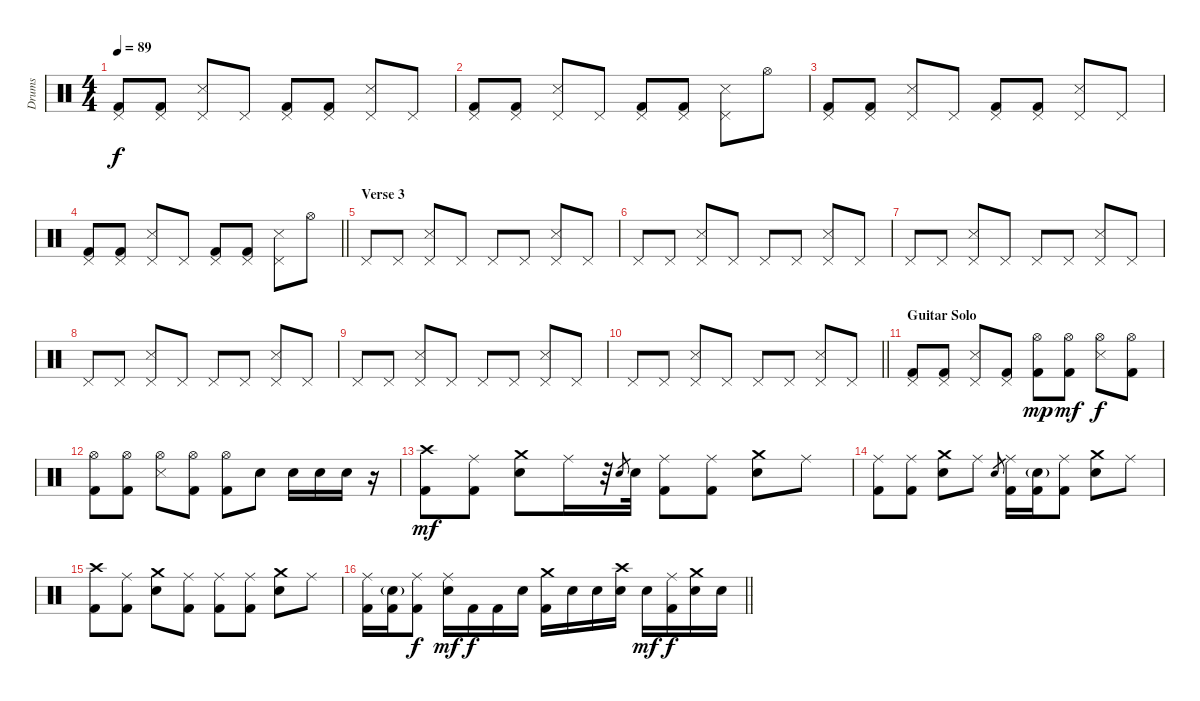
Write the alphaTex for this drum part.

\track ("Drums" "Drums") {instrument percussion}
\staff {score}
\articulation defaults
\ts (4 4)
\tempo 89
\clef neutral
\ks c
("Pedal Hi-Hat (hit)" "Kick (hit) 2").8{dy f} ("Pedal Hi-Hat (hit)" "Kick (hit) 2").8 ("Pedal Hi-Hat (hit)" "Snare (side stick) 3").8 "Pedal Hi-Hat (hit)".8 ("Pedal Hi-Hat (hit)" "Kick (hit) 2").8 ("Pedal Hi-Hat (hit)" "Kick (hit) 2").8 ("Pedal Hi-Hat (hit)" "Snare (side stick) 3").8 "Pedal Hi-Hat (hit)".8 |
("Pedal Hi-Hat (hit)" "Kick (hit) 2").8 ("Pedal Hi-Hat (hit)" "Kick (hit) 2").8 ("Pedal Hi-Hat (hit)" "Snare (side stick) 3").8 "Pedal Hi-Hat (hit)".8 ("Pedal Hi-Hat (hit)" "Kick (hit) 2").8 ("Pedal Hi-Hat (hit)" "Kick (hit) 2").8 ("Pedal Hi-Hat (hit)" "Snare (side stick) 3").8 "Hi-Hat (open)".8 |
("Pedal Hi-Hat (hit)" "Kick (hit) 2").8 ("Pedal Hi-Hat (hit)" "Kick (hit) 2").8 ("Pedal Hi-Hat (hit)" "Snare (side stick) 3").8 "Pedal Hi-Hat (hit)".8 ("Pedal Hi-Hat (hit)" "Kick (hit) 2").8 ("Pedal Hi-Hat (hit)" "Kick (hit) 2").8 ("Pedal Hi-Hat (hit)" "Snare (side stick) 3").8 "Pedal Hi-Hat (hit)".8 |
\barLineRight lightlight
("Pedal Hi-Hat (hit)" "Kick (hit) 2").8 ("Pedal Hi-Hat (hit)" "Kick (hit) 2").8 ("Pedal Hi-Hat (hit)" "Snare (side stick) 3").8 "Pedal Hi-Hat (hit)".8 ("Pedal Hi-Hat (hit)" "Kick (hit) 2").8 ("Pedal Hi-Hat (hit)" "Kick (hit) 2").8 ("Pedal Hi-Hat (hit)" "Snare (side stick) 3").8 "Hi-Hat (open)".8 |
\section ("" "Verse 3")
"Pedal Hi-Hat (hit)".8 "Pedal Hi-Hat (hit)".8 ("Pedal Hi-Hat (hit)" "Snare (side stick) 3").8 "Pedal Hi-Hat (hit)".8 "Pedal Hi-Hat (hit)".8 "Pedal Hi-Hat (hit)".8 ("Pedal Hi-Hat (hit)" "Snare (side stick) 3").8 "Pedal Hi-Hat (hit)".8 |
"Pedal Hi-Hat (hit)".8 "Pedal Hi-Hat (hit)".8 ("Pedal Hi-Hat (hit)" "Snare (side stick) 3").8 "Pedal Hi-Hat (hit)".8 "Pedal Hi-Hat (hit)".8 "Pedal Hi-Hat (hit)".8 ("Pedal Hi-Hat (hit)" "Snare (side stick) 3").8 "Pedal Hi-Hat (hit)".8 |
"Pedal Hi-Hat (hit)".8 "Pedal Hi-Hat (hit)".8 ("Pedal Hi-Hat (hit)" "Snare (side stick) 3").8 "Pedal Hi-Hat (hit)".8 "Pedal Hi-Hat (hit)".8 "Pedal Hi-Hat (hit)".8 ("Pedal Hi-Hat (hit)" "Snare (side stick) 3").8 "Pedal Hi-Hat (hit)".8 |
"Pedal Hi-Hat (hit)".8 "Pedal Hi-Hat (hit)".8 ("Pedal Hi-Hat (hit)" "Snare (side stick) 3").8 "Pedal Hi-Hat (hit)".8 "Pedal Hi-Hat (hit)".8 "Pedal Hi-Hat (hit)".8 ("Pedal Hi-Hat (hit)" "Snare (side stick) 3").8 "Pedal Hi-Hat (hit)".8 |
"Pedal Hi-Hat (hit)".8 "Pedal Hi-Hat (hit)".8 ("Pedal Hi-Hat (hit)" "Snare (side stick) 3").8 "Pedal Hi-Hat (hit)".8 "Pedal Hi-Hat (hit)".8 "Pedal Hi-Hat (hit)".8 ("Pedal Hi-Hat (hit)" "Snare (side stick) 3").8 "Pedal Hi-Hat (hit)".8 |
\barLineRight lightlight "Pedal Hi-Hat (hit)".8 "Pedal Hi-Hat (hit)".8
("Pedal Hi-Hat (hit)" "Snare (side stick) 3").8 "Pedal Hi-Hat (hit)".8 "Pedal Hi-Hat (hit)".8 "Pedal Hi-Hat (hit)".8 ("Pedal Hi-Hat (hit)" "Snare (side stick) 3").8 "Pedal Hi-Hat (hit)".8 |
\section ("" "Guitar Solo")
("Pedal Hi-Hat (hit)" "Kick (hit) 2").8 ("Pedal Hi-Hat (hit)" "Kick (hit) 2").8 ("Pedal Hi-Hat (hit)" "Snare (side stick) 3").8 ("Pedal Hi-Hat (hit)" "Kick (hit) 2").8 ("Hi-Hat (open)" "Kick (hit) 2").8{dy mp} ("Hi-Hat (open)" "Kick (hit) 2").8{dy mf} ("Hi-Hat (open)" "Snare (side stick) 3").8{dy f} ("Hi-Hat (open)" "Kick (hit) 2").8 |
("Hi-Hat (open)" "Kick (hit) 2").8 ("Hi-Hat (open)" "Kick (hit) 2").8 ("Hi-Hat (open)" "Snare (side stick) 3").8 ("Hi-Hat (open)" "Kick (hit) 2").8 ("Hi-Hat (open)" "Kick (hit) 2").8 "Electric Snare (hit)".8 "Electric Snare (hit)".16 "Electric Snare (hit)".16 "Electric Snare (hit)".16 r.16 |
("Crash high (hit)" "Kick (hit) 2").8{dy mf} ("Ride (middle)" "Kick (hit) 2").8 ("Crash medium (hit)" "Electric Snare (hit)").8 "Ride (middle)".16 r.32 "Electric Snare (hit)".8{gr} "Electric Snare (hit)".32 ("Ride (middle)" "Kick (hit) 2").8 ("Ride (middle)" "Kick (hit) 2").8 ("Crash medium (hit)" "Electric Snare (hit)").8 "Ride (middle)".8 |
("Ride (middle)" "Kick (hit) 2").8 ("Ride (middle)" "Kick (hit) 2").8 ("Crash medium (hit)" "Electric Snare (hit)").8 "Ride (middle)".8 "Electric Snare (hit)".8{gr} ("Ride (middle)" "Kick (hit) 2").16 ("Electric Snare (hit)"{g} "Kick (hit) 2").16 ("Ride (middle)" "Kick (hit) 2").8 ("Crash medium (hit)" "Electric Snare (hit)").8 "Ride (middle)".8 |
("Crash high (hit)" "Kick (hit) 2").8 ("Ride (middle)" "Kick (hit) 2").8 ("Crash medium (hit)" "Electric Snare (hit)").8 ("Ride (middle)" "Kick (hit) 2").8 ("Ride (middle)" "Kick (hit) 2").8 ("Ride (middle)" "Kick (hit) 2").8 ("Crash medium (hit)" "Electric Snare (hit)").8 "Ride (middle)".8 |
\barLineRight lightlight
("Ride (middle)" "Kick (hit) 2").16 ("Electric Snare (hit)"{g} "Kick (hit) 2").16 ("Ride (middle)" "Kick (hit) 2").8{dy f} ("Ride (middle)" "Electric Snare (hit)").16{dy mf} "Kick (hit) 2".16{dy f} "Kick (hit) 2".16 "Electric Snare (hit)".16 ("Crash medium (hit)" "Kick (hit) 2").16 "Electric Snare (hit)".16 "Electric Snare (hit)".16 ("Crash high (hit)" "Electric Snare (hit)").16 "Electric Snare (hit)".16{dy mf} ("Ride (middle)" "Kick (hit) 2").16{dy f} ("Crash medium (hit)" "Electric Snare (hit)").16 "Electric Snare (hit)".16
